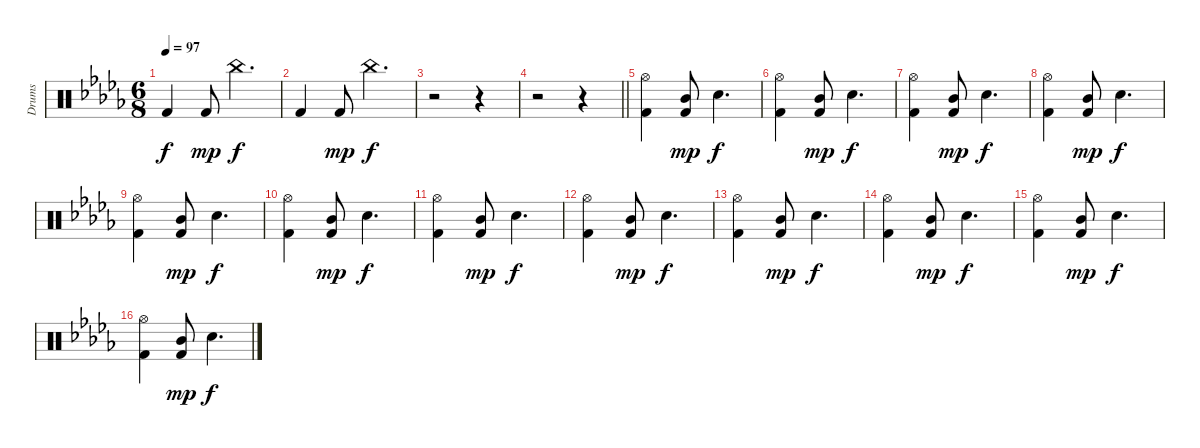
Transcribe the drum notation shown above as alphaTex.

\track ("Drums" "Drums") {instrument percussion}
\staff {score}
\articulation defaults
\ts (6 8)
\tempo 97
\clef neutral
\ks db "Kick (hit) 2".4{dy f} "Kick (hit) 2".8{dy mp} "China (hit)".4{d dy f}
|
"Kick (hit) 2".4 "Kick (hit) 2".8{dy mp} "China (hit)".4{d dy f} |
r.2 r.4 |
\barLineRight lightlight
r.2 r.4 |
("Kick (hit) 2" "Hi-Hat (open)").4 ("Mid Tom (hit)" "Kick (hit) 2").8{dy mp} "Electric Snare (hit)".4{d dy f} |
("Kick (hit) 2" "Hi-Hat (open)").4 ("Mid Tom (hit)" "Kick (hit) 2").8{dy mp} "Electric Snare (hit)".4{d dy f} |
("Kick (hit) 2" "Hi-Hat (open)").4 ("Mid Tom (hit)" "Kick (hit) 2").8{dy mp} "Electric Snare (hit)".4{d dy f} |
("Kick (hit) 2" "Hi-Hat (open)").4 ("Mid Tom (hit)" "Kick (hit) 2").8{dy mp} "Electric Snare (hit)".4{d dy f} |
("Kick (hit) 2" "Hi-Hat (open)").4 ("Mid Tom (hit)" "Kick (hit) 2").8{dy mp} "Electric Snare (hit)".4{d dy f} |
("Kick (hit) 2" "Hi-Hat (open)").4 ("Mid Tom (hit)" "Kick (hit) 2").8{dy mp} "Electric Snare (hit)".4{d dy f} |
("Kick (hit) 2" "Hi-Hat (open)").4 ("Mid Tom (hit)" "Kick (hit) 2").8{dy mp} "Electric Snare (hit)".4{d dy f} |
("Kick (hit) 2" "Hi-Hat (open)").4 ("Mid Tom (hit)" "Kick (hit) 2").8{dy mp} "Electric Snare (hit)".4{d dy f} |
("Kick (hit) 2" "Hi-Hat (open)").4 ("Mid Tom (hit)" "Kick (hit) 2").8{dy mp} "Electric Snare (hit)".4{d dy f} |
("Kick (hit) 2" "Hi-Hat (open)").4 ("Mid Tom (hit)" "Kick (hit) 2").8{dy mp} "Electric Snare (hit)".4{d dy f} |
("Kick (hit) 2" "Hi-Hat (open)").4 ("Mid Tom (hit)" "Kick (hit) 2").8{dy mp} "Electric Snare (hit)".4{d dy f} |
("Kick (hit) 2" "Hi-Hat (open)").4 ("Mid Tom (hit)" "Kick (hit) 2").8{dy mp} "Electric Snare (hit)".4{d dy f}
